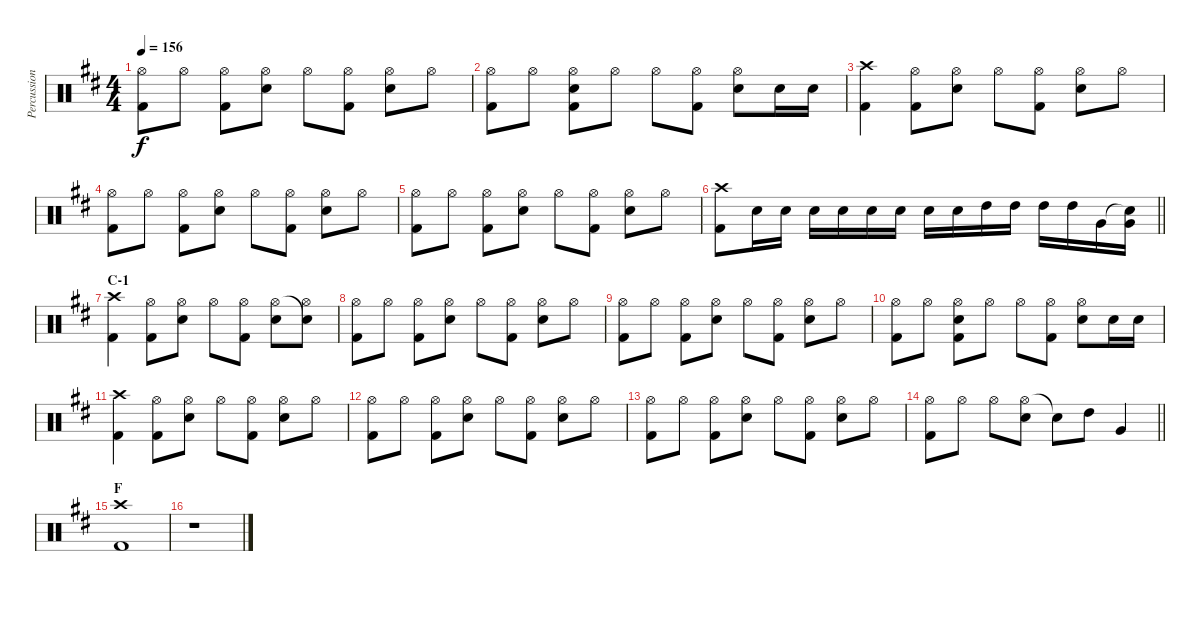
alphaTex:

\track ("Percussion" "Percussion") {instrument percussion}
\staff {score}
\articulation defaults
\ts (4 4)
\tempo 156
\clef neutral
\ks d
("Hi-Hat (open)" "Kick (hit) 2").8{dy f} "Hi-Hat (open)".8 ("Hi-Hat (open)" "Kick (hit) 2").8 ("Hi-Hat (open)" "Electric Snare (hit)").8 "Hi-Hat (open)".8 ("Hi-Hat (open)" "Kick (hit) 2").8 ("Hi-Hat (open)" "Electric Snare (hit)").8 "Hi-Hat (open)".8 |
("Hi-Hat (open)" "Kick (hit) 2").8 "Hi-Hat (open)".8 ("Hi-Hat (open)" "Electric Snare (hit)" "Kick (hit) 2").8 "Hi-Hat (open)".8 "Hi-Hat (open)".8 ("Hi-Hat (open)" "Kick (hit) 2").8 ("Hi-Hat (open)" "Electric Snare (hit)").8 "Electric Snare (hit)".16 "Electric Snare (hit)".16 |
("Crash high (hit)" "Kick (hit) 2").4 ("Hi-Hat (open)" "Kick (hit) 2").8 ("Hi-Hat (open)" "Electric Snare (hit)").8 "Hi-Hat (open)".8 ("Hi-Hat (open)" "Kick (hit) 2").8 ("Hi-Hat (open)" "Electric Snare (hit)").8 "Hi-Hat (open)".8 |
("Hi-Hat (open)" "Kick (hit) 2").8 "Hi-Hat (open)".8 ("Hi-Hat (open)" "Kick (hit) 2").8 ("Hi-Hat (open)" "Electric Snare (hit)").8 "Hi-Hat (open)".8 ("Hi-Hat (open)" "Kick (hit) 2").8 ("Hi-Hat (open)" "Electric Snare (hit)").8 "Hi-Hat (open)".8 |
("Hi-Hat (open)" "Kick (hit) 2").8 "Hi-Hat (open)".8 ("Hi-Hat (open)" "Kick (hit) 2").8 ("Hi-Hat (open)" "Electric Snare (hit)").8 "Hi-Hat (open)".8 ("Hi-Hat (open)" "Kick (hit) 2").8 ("Hi-Hat (open)" "Electric Snare (hit)").8 "Hi-Hat (open)".8 |
\barLineRight lightlight
("Crash high (hit)" "Kick (hit) 2").8 "Electric Snare (hit)".16 "Electric Snare (hit)".16 "Electric Snare (hit)".16 "Electric Snare (hit)".16 "Electric Snare (hit)".16 "Electric Snare (hit)".16 "Electric Snare (hit)".16 "Electric Snare (hit)".16 "High Tom (hit)".16 "High Tom (hit)".16 "High Tom (hit)".16 "High Tom (hit)".16 "Very Low Tom (hit)".16 ("Snare (hit)"{t} "Very Low Tom (hit)").16 |
\section ("" "C-1")
("Crash high (hit)" "Kick (hit) 2").4 ("Hi-Hat (open)" "Kick (hit) 2").8 ("Hi-Hat (open)" "Electric Snare (hit)").8 "Hi-Hat (open)".8 ("Hi-Hat (open)" "Kick (hit) 2").8 ("Hi-Hat (open)" "Electric Snare (hit)").8 ("Snare (hit)"{t} "Hi-Hat (open)").8 |
("Hi-Hat (open)" "Kick (hit) 2").8 "Hi-Hat (open)".8 ("Hi-Hat (open)" "Kick (hit) 2").8 ("Hi-Hat (open)" "Electric Snare (hit)").8 "Hi-Hat (open)".8 ("Hi-Hat (open)" "Kick (hit) 2").8 ("Hi-Hat (open)" "Electric Snare (hit)").8 "Hi-Hat (open)".8 |
("Hi-Hat (open)" "Kick (hit) 2").8 "Hi-Hat (open)".8 ("Hi-Hat (open)" "Kick (hit) 2").8 ("Hi-Hat (open)" "Electric Snare (hit)").8 "Hi-Hat (open)".8 ("Hi-Hat (open)" "Kick (hit) 2").8 ("Hi-Hat (open)" "Electric Snare (hit)").8 "Hi-Hat (open)".8 |
("Hi-Hat (open)" "Kick (hit) 2").8 "Hi-Hat (open)".8 ("Hi-Hat (open)" "Electric Snare (hit)" "Kick (hit) 2").8 "Hi-Hat (open)".8 "Hi-Hat (open)".8 ("Hi-Hat (open)" "Kick (hit) 2").8 ("Hi-Hat (open)" "Electric Snare (hit)").8 "Electric Snare (hit)".16 "Electric Snare (hit)".16 |
("Crash high (hit)" "Kick (hit) 2").4 ("Hi-Hat (open)" "Kick (hit) 2").8 ("Hi-Hat (open)" "Electric Snare (hit)").8 "Hi-Hat (open)".8 ("Hi-Hat (open)" "Kick (hit) 2").8 ("Hi-Hat (open)" "Electric Snare (hit)").8 "Hi-Hat (open)".8 |
("Hi-Hat (open)" "Kick (hit) 2").8 "Hi-Hat (open)".8 ("Hi-Hat (open)" "Kick (hit) 2").8 ("Hi-Hat (open)" "Electric Snare (hit)").8 "Hi-Hat (open)".8 ("Hi-Hat (open)" "Kick (hit) 2").8 ("Hi-Hat (open)" "Electric Snare (hit)").8 "Hi-Hat (open)".8 |
("Hi-Hat (open)" "Kick (hit) 2").8 "Hi-Hat (open)".8 ("Hi-Hat (open)" "Kick (hit) 2").8 ("Hi-Hat (open)" "Electric Snare (hit)").8 "Hi-Hat (open)".8 ("Hi-Hat (open)" "Kick (hit) 2").8 ("Hi-Hat (open)" "Electric Snare (hit)").8 "Hi-Hat (open)".8 |
\barLineRight lightlight
("Hi-Hat (open)" "Kick (hit) 2").8 "Hi-Hat (open)".8 "Hi-Hat (open)".8 ("Hi-Hat (open)" "Electric Snare (hit)").8 "Snare (hit)"{t}.8 "High Tom (hit)".8 "Very Low Tom (hit)".4 |
\section ("" "F")
("Crash high (hit)" "Kick (hit) 2").1 |
r.1
